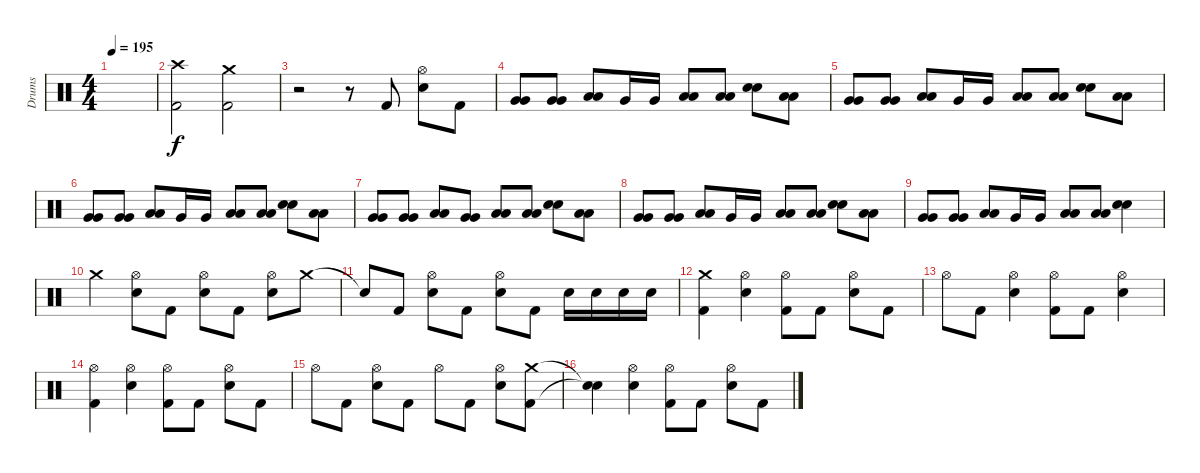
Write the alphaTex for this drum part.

\track ("Drums" "Drums") {instrument percussion}
\staff {score}
\articulation defaults
\ts (4 4)
\tempo 195
\clef neutral
\ks c
|
("Crash high (hit)" "Kick (hit) 2").2 ("Crash medium (hit)" "Kick (hit) 2").2 |
r.2 r.8 "Kick (hit) 2".8 ("Hi-Hat (open)" "Electric Snare (hit)").8 "Kick (hit) 2".8 |
\section ("" "")
("Very Low Tom (hit)" "Very Low Tom (hit)").8 ("Very Low Tom (hit)" "Very Low Tom (hit)").8 ("Low Tom (hit)" "Low Tom (hit)").8 "Very Low Tom (hit)".16 "Very Low Tom (hit)".16 ("Low Tom (hit)" "Low Tom (hit)").8 ("Low Tom (hit)" "Low Tom (hit)").8 ("Electric Snare (hit)" "Electric Snare (hit)").8 ("Low Tom (hit)" "Low Tom (hit)").8 |
("Very Low Tom (hit)" "Very Low Tom (hit)").8 ("Very Low Tom (hit)" "Very Low Tom (hit)").8 ("Low Tom (hit)" "Low Tom (hit)").8 "Very Low Tom (hit)".16 "Very Low Tom (hit)".16 ("Low Tom (hit)" "Low Tom (hit)").8 ("Low Tom (hit)" "Low Tom (hit)").8 ("Electric Snare (hit)" "Electric Snare (hit)").8 ("Low Tom (hit)" "Low Tom (hit)").8 |
("Very Low Tom (hit)" "Very Low Tom (hit)").8 ("Very Low Tom (hit)" "Very Low Tom (hit)").8 ("Low Tom (hit)" "Low Tom (hit)").8 "Very Low Tom (hit)".16 "Very Low Tom (hit)".16 ("Low Tom (hit)" "Low Tom (hit)").8 ("Low Tom (hit)" "Low Tom (hit)").8 ("Electric Snare (hit)" "Electric Snare (hit)").8 ("Low Tom (hit)" "Low Tom (hit)").8 |
("Very Low Tom (hit)" "Very Low Tom (hit)").8 ("Very Low Tom (hit)" "Very Low Tom (hit)").8 ("Low Tom (hit)" "Low Tom (hit)").8 ("Very Low Tom (hit)" "Very Low Tom (hit)").8 ("Low Tom (hit)" "Low Tom (hit)").8 ("Low Tom (hit)" "Low Tom (hit)").8 ("Electric Snare (hit)" "Electric Snare (hit)").8 ("Low Tom (hit)" "Low Tom (hit)").8 |
("Very Low Tom (hit)" "Very Low Tom (hit)").8 ("Very Low Tom (hit)" "Very Low Tom (hit)").8 ("Low Tom (hit)" "Low Tom (hit)").8 "Very Low Tom (hit)".16 "Very Low Tom (hit)".16 ("Low Tom (hit)" "Low Tom (hit)").8 ("Low Tom (hit)" "Low Tom (hit)").8 ("Electric Snare (hit)" "Electric Snare (hit)").8 ("Low Tom (hit)" "Low Tom (hit)").8 |
("Very Low Tom (hit)" "Very Low Tom (hit)").8 ("Very Low Tom (hit)" "Very Low Tom (hit)").8 ("Low Tom (hit)" "Low Tom (hit)").8 "Very Low Tom (hit)".16 "Very Low Tom (hit)".16 ("Low Tom (hit)" "Low Tom (hit)").8 ("Low Tom (hit)" "Low Tom (hit)").8 ("Electric Snare (hit)" "Electric Snare (hit)").4 |
\section ("" "")
"Crash medium (hit)".4 ("Hi-Hat (open)" "Electric Snare (hit)").8 "Kick (hit) 2".8 ("Hi-Hat (open)" "Electric Snare (hit)").8 "Kick (hit) 2".8 ("Hi-Hat (open)" "Electric Snare (hit)").8 "Crash medium (hit)".8 |
"Snare (hit)"{t}.8 "Kick (hit) 2".8 ("Hi-Hat (open)" "Electric Snare (hit)").8 "Kick (hit) 2".8 ("Hi-Hat (open)" "Electric Snare (hit)").8 "Kick (hit) 2".8 "Electric Snare (hit)".16 "Electric Snare (hit)".16 "Electric Snare (hit)".16 "Electric Snare (hit)".16 |
("Crash medium (hit)" "Kick (hit) 2").4 ("Hi-Hat (open)" "Electric Snare (hit)").4 ("Hi-Hat (open)" "Kick (hit) 2").8 "Kick (hit) 2".8 ("Hi-Hat (open)" "Electric Snare (hit)").8 "Kick (hit) 2".8 |
"Hi-Hat (open)".8 "Kick (hit) 2".8 ("Hi-Hat (open)" "Electric Snare (hit)").4 ("Hi-Hat (open)" "Kick (hit) 2").8 "Kick (hit) 2".8 ("Hi-Hat (open)" "Electric Snare (hit)").4 |
("Hi-Hat (open)" "Kick (hit) 2").4 ("Hi-Hat (open)" "Electric Snare (hit)").4 ("Hi-Hat (open)" "Kick (hit) 2").8 "Kick (hit) 2".8 ("Hi-Hat (open)" "Electric Snare (hit)").8 "Kick (hit) 2".8 |
"Hi-Hat (open)".8 "Kick (hit) 2".8 ("Hi-Hat (open)" "Electric Snare (hit)").8 "Kick (hit) 2".8 "Hi-Hat (open)".8 "Kick (hit) 2".8 ("Hi-Hat (open)" "Electric Snare (hit)").8 ("Crash medium (hit)" "Kick (hit) 2").8 |
("Snare (hit)"{t} "Snare (hit)"{t}).4 ("Hi-Hat (open)" "Electric Snare (hit)").4 ("Hi-Hat (open)" "Kick (hit) 2").8 "Kick (hit) 2".8 ("Hi-Hat (open)" "Electric Snare (hit)").8 "Kick (hit) 2".8
